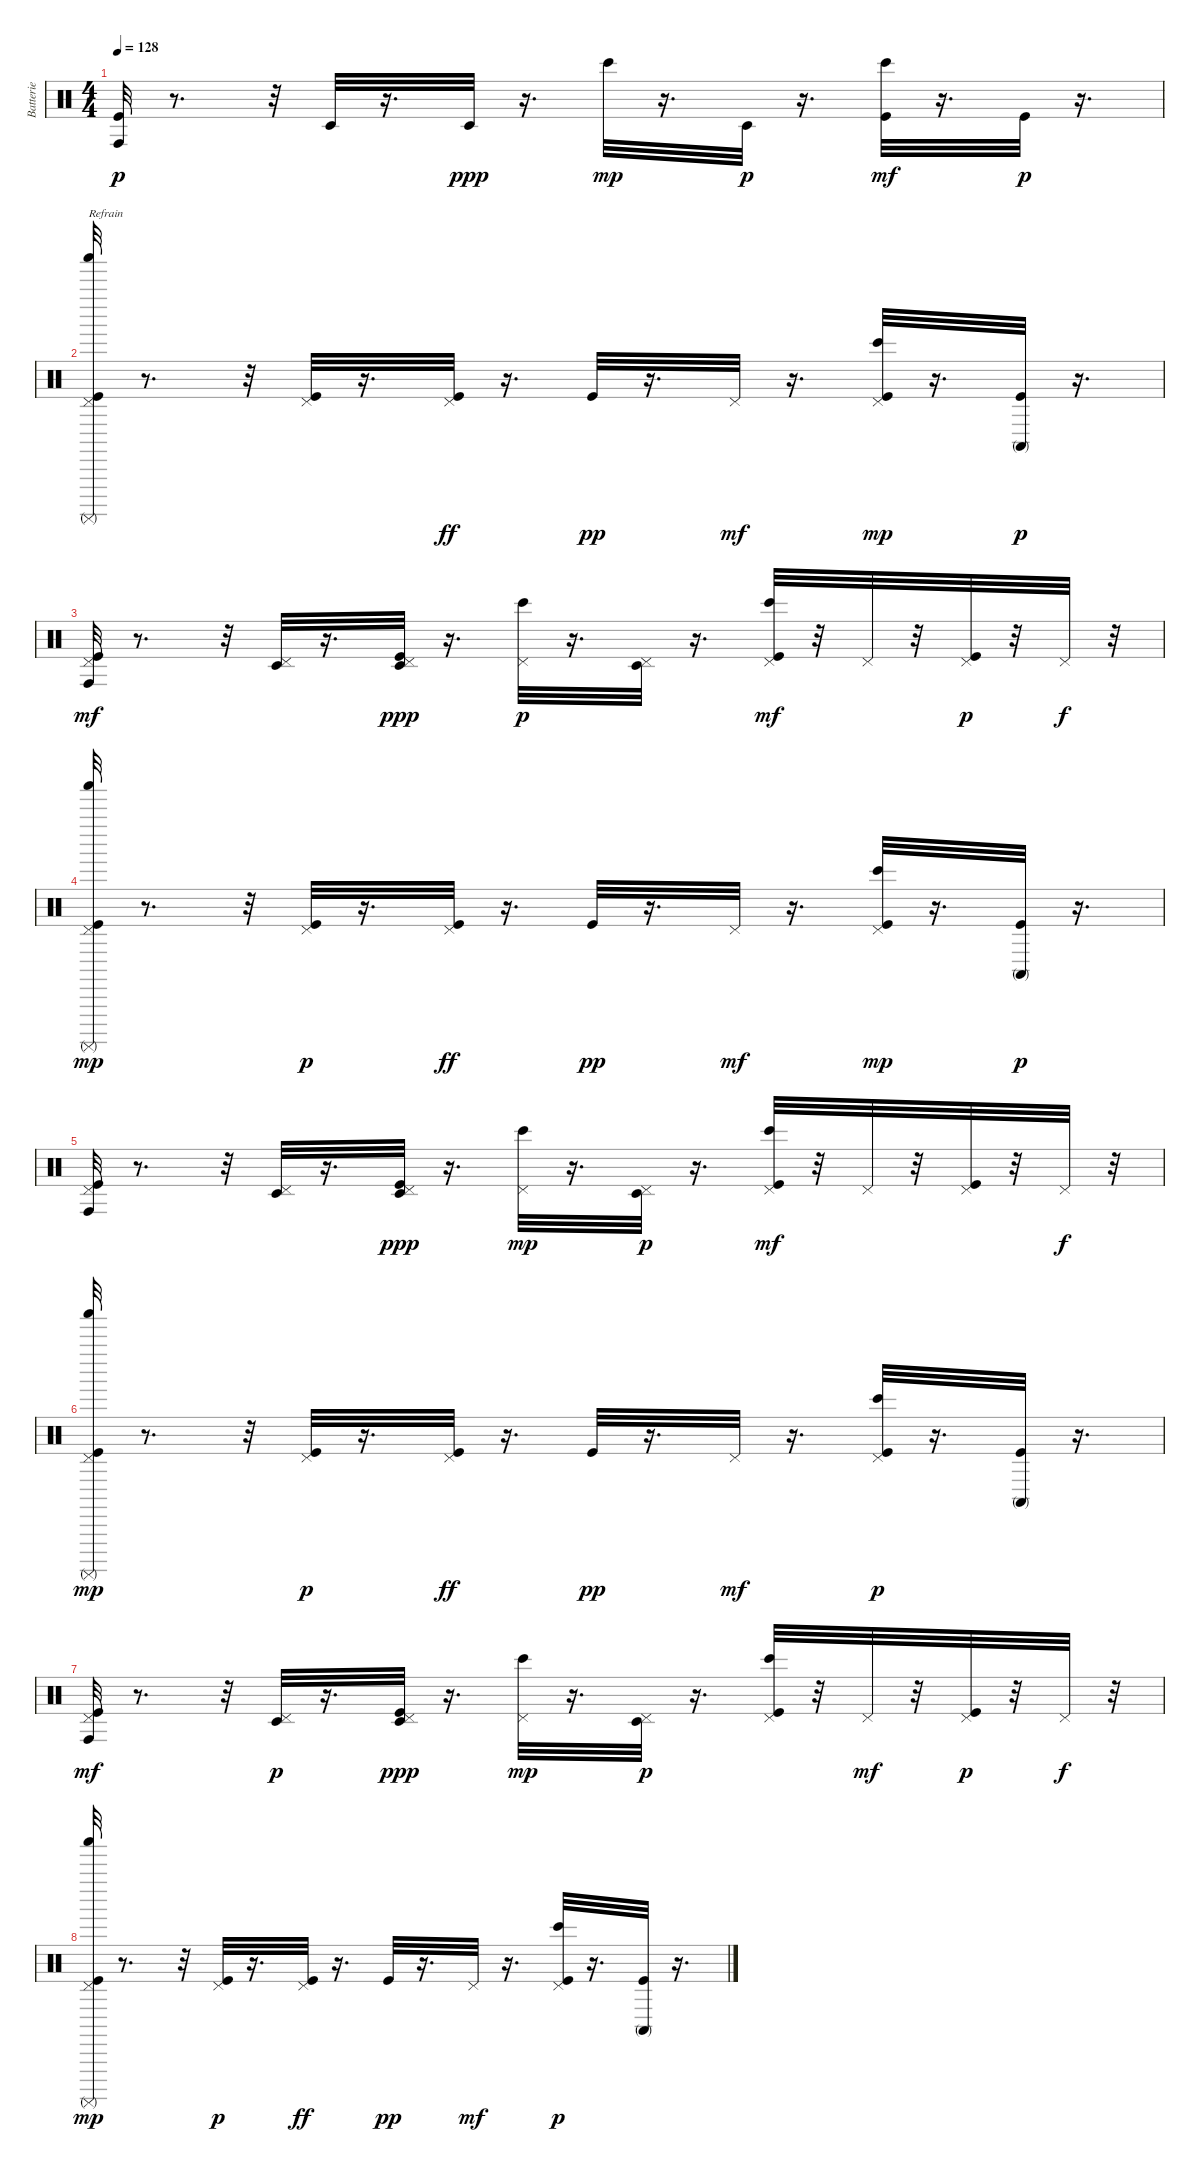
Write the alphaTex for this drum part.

\track ("Batterie" "Batterie") {instrument percussion}
\staff {score}
\articulation defaults
\ts (4 4)
\tempo 128
\clef neutral
\ks c
("Conga high (hit)" "Kick (hit)").32{dy p} r.8{d} r.32 "Timbale low (hit)".32 r.16{d} "Timbale low (hit)".32{dy ppp} r.16{d} "Bongo High (hit)".32{dy mp} r.16{d} "Timbale low (hit)".32{dy p} r.16{d} ("Kick (hit)" "Bongo High (hit)").32{dy mf} r.16{d} "Kick (hit)".32{dy p} r.16{d} |
("Shaker (hit)" "Surdo (mute)" "Pedal Hi-Hat (hit)" "Kick (hit)").32{txt "Refrain"} r.8{d} r.32 ("Kick (hit)" "Pedal Hi-Hat (hit)").32 r.16{d} ("Kick (hit)" "Pedal Hi-Hat (hit)").32{dy ff} r.16{d} "Kick (hit)".32{dy pp} r.16{d} "Pedal Hi-Hat (hit)".32{dy mf} r.16{d} ("Kick (hit)" "Bongo High (hit)" "Pedal Hi-Hat (hit)").32{dy mp} r.16{d} ("Conga high (mute)" "Kick (hit)").32{dy p} r.16{d} |
("Kick (hit)" "Pedal Hi-Hat (hit)" "Conga high (hit)").32{dy mf} r.8{d} r.32 ("Timbale low (hit)" "Pedal Hi-Hat (hit)").32 r.16{d} ("Kick (hit)" "Pedal Hi-Hat (hit)" "Timbale low (hit)").32{dy ppp} r.16{d} ("Bongo High (hit)" "Pedal Hi-Hat (hit)").32{dy p} r.16{d} ("Timbale low (hit)" "Pedal Hi-Hat (hit)").32 r.16{d} ("Pedal Hi-Hat (hit)" "Kick (hit)" "Bongo High (hit)").32{dy mf} r.32 "Pedal Hi-Hat (hit)".32 r.32 ("Pedal Hi-Hat (hit)" "Kick (hit)").32{dy p} r.32 "Pedal Hi-Hat (hit)".32{dy f} r.32 |
("Pedal Hi-Hat (hit)" "Shaker (hit)" "Kick (hit)" "Surdo (mute)").32{dy mp} r.8{d} r.32 ("Pedal Hi-Hat (hit)" "Kick (hit)").32{dy p} r.16{d} ("Kick (hit)" "Pedal Hi-Hat (hit)").32{dy ff} r.16{d} "Kick (hit)".32{dy pp} r.16{d} "Pedal Hi-Hat (hit)".32{dy mf} r.16{d} ("Pedal Hi-Hat (hit)" "Kick (hit)" "Bongo High (hit)").32{dy mp} r.16{d} ("Kick (hit)" "Conga high (mute)").32{dy p} r.16{d} |
("Conga high (hit)" "Pedal Hi-Hat (hit)" "Kick (hit)").32 r.8{d} r.32 ("Pedal Hi-Hat (hit)" "Timbale low (hit)").32 r.16{d} ("Kick (hit)" "Timbale low (hit)" "Pedal Hi-Hat (hit)").32{dy ppp} r.16{d} ("Pedal Hi-Hat (hit)" "Bongo High (hit)").32{dy mp} r.16{d} ("Pedal Hi-Hat (hit)" "Timbale low (hit)").32{dy p} r.16{d} ("Kick (hit)" "Pedal Hi-Hat (hit)" "Bongo High (hit)").32{dy mf} r.32 "Pedal Hi-Hat (hit)".32 r.32 ("Kick (hit)" "Pedal Hi-Hat (hit)").32 r.32 "Pedal Hi-Hat (hit)".32{dy f} r.32 |
("Kick (hit)" "Surdo (mute)" "Pedal Hi-Hat (hit)" "Shaker (hit)").32{dy mp} r.8{d} r.32 ("Kick (hit)" "Pedal Hi-Hat (hit)").32{dy p} r.16{d} ("Pedal Hi-Hat (hit)" "Kick (hit)").32{dy ff} r.16{d} "Kick (hit)".32{dy pp} r.16{d} "Pedal Hi-Hat (hit)".32{dy mf} r.16{d} ("Bongo High (hit)" "Kick (hit)" "Pedal Hi-Hat (hit)").32{dy p} r.16{d} ("Kick (hit)" "Conga high (mute)").32 r.16{d} |
("Pedal Hi-Hat (hit)" "Kick (hit)" "Conga high (hit)").32{dy mf} r.8{d} r.32 ("Pedal Hi-Hat (hit)" "Timbale low (hit)").32{dy p} r.16{d} ("Kick (hit)" "Timbale low (hit)" "Pedal Hi-Hat (hit)").32{dy ppp} r.16{d} ("Pedal Hi-Hat (hit)" "Bongo High (hit)").32{dy mp} r.16{d} ("Pedal Hi-Hat (hit)" "Timbale low (hit)").32{dy p} r.16{d} ("Pedal Hi-Hat (hit)" "Bongo High (hit)" "Kick (hit)").32 r.32 "Pedal Hi-Hat (hit)".32{dy mf} r.32 ("Pedal Hi-Hat (hit)" "Kick (hit)").32{dy p} r.32 "Pedal Hi-Hat (hit)".32{dy f} r.32 |
("Pedal Hi-Hat (hit)" "Kick (hit)" "Surdo (mute)" "Shaker (hit)").32{dy mp} r.8{d} r.32 ("Kick (hit)" "Pedal Hi-Hat (hit)").32{dy p} r.16{d} ("Kick (hit)" "Pedal Hi-Hat (hit)").32{dy ff} r.16{d} "Kick (hit)".32{dy pp} r.16{d} "Pedal Hi-Hat (hit)".32{dy mf} r.16{d} ("Pedal Hi-Hat (hit)" "Bongo High (hit)" "Kick (hit)").32{dy p} r.16{d} ("Kick (hit)" "Conga high (mute)").32 r.16{d}
